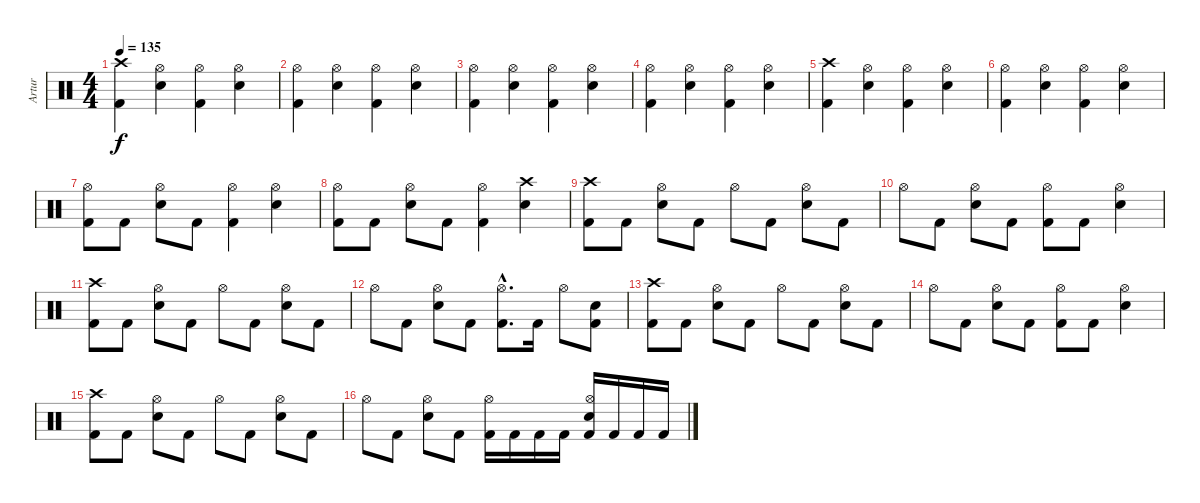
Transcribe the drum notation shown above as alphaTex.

\track ("Artur" "Artur") {instrument percussion}
\staff {score}
\articulation defaults
\ts (4 4)
\tempo 135
\clef neutral
\ks c
("Crash high (hit)" "Kick (hit) 2").4{dy f} ("Hi-Hat (open)" "Electric Snare (hit)").4 ("Hi-Hat (open)" "Kick (hit) 2").4 ("Hi-Hat (open)" "Electric Snare (hit)").4 |
("Hi-Hat (open)" "Kick (hit) 2").4 ("Hi-Hat (open)" "Electric Snare (hit)").4 ("Hi-Hat (open)" "Kick (hit) 2").4 ("Hi-Hat (open)" "Electric Snare (hit)").4 |
("Hi-Hat (open)" "Kick (hit) 2").4 ("Hi-Hat (open)" "Electric Snare (hit)").4 ("Hi-Hat (open)" "Kick (hit) 2").4 ("Hi-Hat (open)" "Electric Snare (hit)").4 |
("Hi-Hat (open)" "Kick (hit) 2").4 ("Hi-Hat (open)" "Electric Snare (hit)").4 ("Hi-Hat (open)" "Kick (hit) 2").4 ("Hi-Hat (open)" "Electric Snare (hit)").4 |
("Crash high (hit)" "Kick (hit) 2").4 ("Hi-Hat (open)" "Electric Snare (hit)").4 ("Hi-Hat (open)" "Kick (hit) 2").4 ("Hi-Hat (open)" "Electric Snare (hit)").4 |
("Hi-Hat (open)" "Kick (hit) 2").4 ("Hi-Hat (open)" "Electric Snare (hit)").4 ("Hi-Hat (open)" "Kick (hit) 2").4 ("Hi-Hat (open)" "Electric Snare (hit)").4 |
("Hi-Hat (open)" "Kick (hit) 2").8 "Kick (hit) 2".8 ("Hi-Hat (open)" "Electric Snare (hit)").8 "Kick (hit) 2".8 ("Hi-Hat (open)" "Kick (hit) 2").4 ("Hi-Hat (open)" "Electric Snare (hit)").4 |
("Hi-Hat (open)" "Kick (hit) 2").8 "Kick (hit) 2".8 ("Hi-Hat (open)" "Electric Snare (hit)").8 "Kick (hit) 2".8 ("Hi-Hat (open)" "Kick (hit) 2").4 ("Crash high (hit)" "Electric Snare (hit)").4 |
("Crash high (hit)" "Kick (hit) 2").8 "Kick (hit) 2".8 ("Hi-Hat (open)" "Electric Snare (hit)").8 "Kick (hit) 2".8 "Hi-Hat (open)".8 "Kick (hit) 2".8 ("Hi-Hat (open)" "Electric Snare (hit)").8 "Kick (hit) 2".8 |
"Hi-Hat (open)".8 "Kick (hit) 2".8 ("Hi-Hat (open)" "Electric Snare (hit)").8 "Kick (hit) 2".8 ("Hi-Hat (open)" "Kick (hit) 2").8 "Kick (hit) 2".8 ("Hi-Hat (open)" "Electric Snare (hit)").4 |
("Crash high (hit)" "Kick (hit) 2").8 "Kick (hit) 2".8 ("Hi-Hat (open)" "Electric Snare (hit)").8 "Kick (hit) 2".8 "Hi-Hat (open)".8 "Kick (hit) 2".8 ("Hi-Hat (open)" "Electric Snare (hit)").8 "Kick (hit) 2".8 |
"Hi-Hat (open)".8 "Kick (hit) 2".8 ("Hi-Hat (open)" "Electric Snare (hit)").8 "Kick (hit) 2".8 ("Hi-Hat (open)"{hac} "Kick (hit) 2"{hac}).8{d} "Kick (hit) 2".16 "Hi-Hat (open)".8 ("Electric Snare (hit)" "Kick (hit) 2").8 |
("Crash high (hit)" "Kick (hit) 2").8 "Kick (hit) 2".8 ("Hi-Hat (open)" "Electric Snare (hit)").8 "Kick (hit) 2".8 "Hi-Hat (open)".8 "Kick (hit) 2".8 ("Hi-Hat (open)" "Electric Snare (hit)").8 "Kick (hit) 2".8 |
"Hi-Hat (open)".8 "Kick (hit) 2".8 ("Hi-Hat (open)" "Electric Snare (hit)").8 "Kick (hit) 2".8 ("Hi-Hat (open)" "Kick (hit) 2").8 "Kick (hit) 2".8 ("Hi-Hat (open)" "Electric Snare (hit)").4 |
("Crash high (hit)" "Kick (hit) 2").8 "Kick (hit) 2".8 ("Hi-Hat (open)" "Electric Snare (hit)").8 "Kick (hit) 2".8 "Hi-Hat (open)".8 "Kick (hit) 2".8 ("Hi-Hat (open)" "Electric Snare (hit)").8 "Kick (hit) 2".8 |
"Hi-Hat (open)".8 "Kick (hit) 2".8 ("Hi-Hat (open)" "Electric Snare (hit)").8 "Kick (hit) 2".8 ("Hi-Hat (open)" "Kick (hit) 2").16 "Kick (hit) 2".16 "Kick (hit) 2".16 "Kick (hit) 2".16 ("Hi-Hat (open)" "Electric Snare (hit)" "Kick (hit) 2").16 "Kick (hit) 2".16 "Kick (hit) 2".16 "Kick (hit) 2".16
